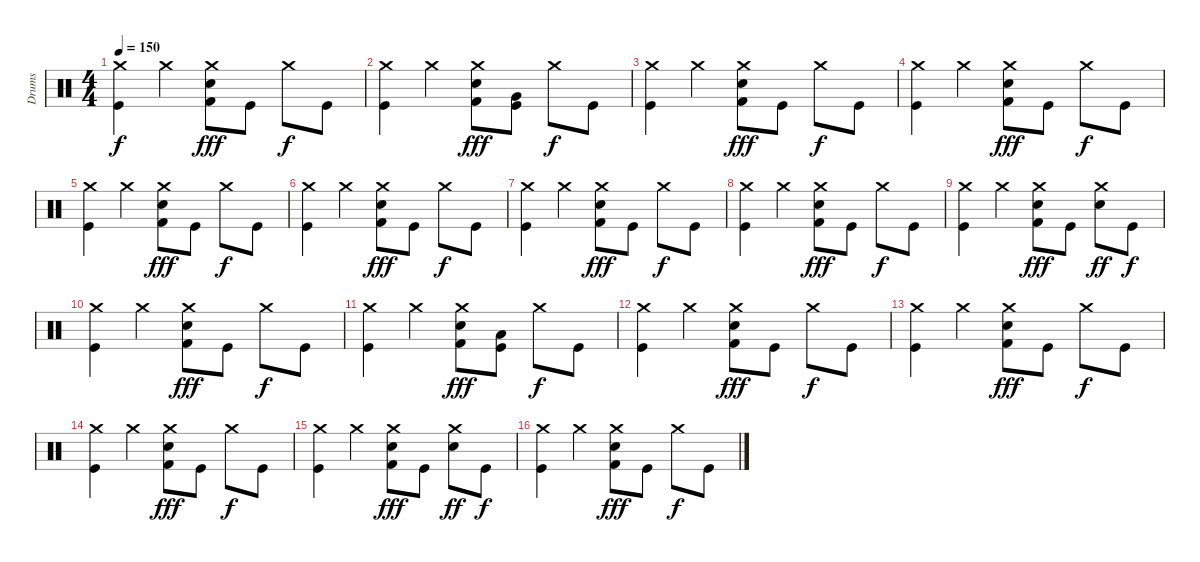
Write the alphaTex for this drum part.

\track ("Drums" "Drums") {instrument percussion}
\staff {score}
\articulation defaults
\ts (4 4)
\tempo 150
\clef neutral
\ks c
("Crash medium (hit)" "Kick (hit)").4{dy f} "Crash medium (hit)".4 ("Crash medium (hit)" "Electric Snare (hit)" "Kick (hit) 2").8{dy fff} "Kick (hit)".8 "Crash medium (hit)".8{dy f} "Kick (hit)".8 |
("Crash medium (hit)" "Kick (hit)").4 "Crash medium (hit)".4 ("Crash medium (hit)" "Electric Snare (hit)" "Kick (hit) 2").8{dy fff} ("Very Low Tom (hit)" "Kick (hit)").8 "Crash medium (hit)".8{dy f} "Kick (hit)".8 |
("Crash medium (hit)" "Kick (hit)").4 "Crash medium (hit)".4 ("Crash medium (hit)" "Electric Snare (hit)" "Kick (hit) 2").8{dy fff} "Kick (hit)".8 "Crash medium (hit)".8{dy f} "Kick (hit)".8 |
("Crash medium (hit)" "Kick (hit)").4 "Crash medium (hit)".4 ("Crash medium (hit)" "Electric Snare (hit)" "Kick (hit) 2").8{dy fff} "Kick (hit)".8 "Crash medium (hit)".8{dy f} "Kick (hit)".8 |
("Crash medium (hit)" "Kick (hit)").4 "Crash medium (hit)".4 ("Crash medium (hit)" "Electric Snare (hit)" "Kick (hit) 2").8{dy fff} "Kick (hit)".8 "Crash medium (hit)".8{dy f} "Kick (hit)".8 |
("Crash medium (hit)" "Kick (hit)").4 "Crash medium (hit)".4 ("Crash medium (hit)" "Electric Snare (hit)" "Kick (hit) 2").8{dy fff} "Kick (hit)".8 "Crash medium (hit)".8{dy f} "Kick (hit)".8 |
("Crash medium (hit)" "Kick (hit)").4 "Crash medium (hit)".4 ("Crash medium (hit)" "Electric Snare (hit)" "Kick (hit) 2").8{dy fff} "Kick (hit)".8 "Crash medium (hit)".8{dy f} "Kick (hit)".8 |
("Crash medium (hit)" "Kick (hit)").4 "Crash medium (hit)".4 ("Crash medium (hit)" "Electric Snare (hit)" "Kick (hit) 2").8{dy fff} "Kick (hit)".8 "Crash medium (hit)".8{dy f} "Kick (hit)".8 |
("Crash medium (hit)" "Kick (hit)").4 "Crash medium (hit)".4 ("Crash medium (hit)" "Electric Snare (hit)" "Kick (hit) 2").8{dy fff} "Kick (hit)".8 ("Crash medium (hit)" "Electric Snare (hit)").8{dy ff} "Kick (hit)".8{dy f} |
("Crash medium (hit)" "Kick (hit)").4 "Crash medium (hit)".4 ("Crash medium (hit)" "Electric Snare (hit)" "Kick (hit) 2").8{dy fff} "Kick (hit)".8 "Crash medium (hit)".8{dy f} "Kick (hit)".8 |
("Crash medium (hit)" "Kick (hit)").4 "Crash medium (hit)".4 ("Crash medium (hit)" "Electric Snare (hit)" "Kick (hit) 2").8{dy fff} ("Low Tom (hit)" "Kick (hit)").8 "Crash medium (hit)".8{dy f} "Kick (hit)".8 |
("Crash medium (hit)" "Kick (hit)").4 "Crash medium (hit)".4 ("Crash medium (hit)" "Electric Snare (hit)" "Kick (hit) 2").8{dy fff} "Kick (hit)".8 "Crash medium (hit)".8{dy f} "Kick (hit)".8 |
("Crash medium (hit)" "Kick (hit)").4 "Crash medium (hit)".4 ("Crash medium (hit)" "Electric Snare (hit)" "Kick (hit) 2").8{dy fff} "Kick (hit)".8 "Crash medium (hit)".8{dy f} "Kick (hit)".8 |
("Crash medium (hit)" "Kick (hit)").4 "Crash medium (hit)".4 ("Crash medium (hit)" "Electric Snare (hit)" "Kick (hit) 2").8{dy fff} "Kick (hit)".8 "Crash medium (hit)".8{dy f} "Kick (hit)".8 |
("Crash medium (hit)" "Kick (hit)").4 "Crash medium (hit)".4 ("Crash medium (hit)" "Electric Snare (hit)" "Kick (hit) 2").8{dy fff} "Kick (hit)".8 ("Crash medium (hit)" "Electric Snare (hit)").8{dy ff} "Kick (hit)".8{dy f} |
("Crash medium (hit)" "Kick (hit)").4 "Crash medium (hit)".4 ("Crash medium (hit)" "Electric Snare (hit)" "Kick (hit) 2").8{dy fff} "Kick (hit)".8 "Crash medium (hit)".8{dy f} "Kick (hit)".8
